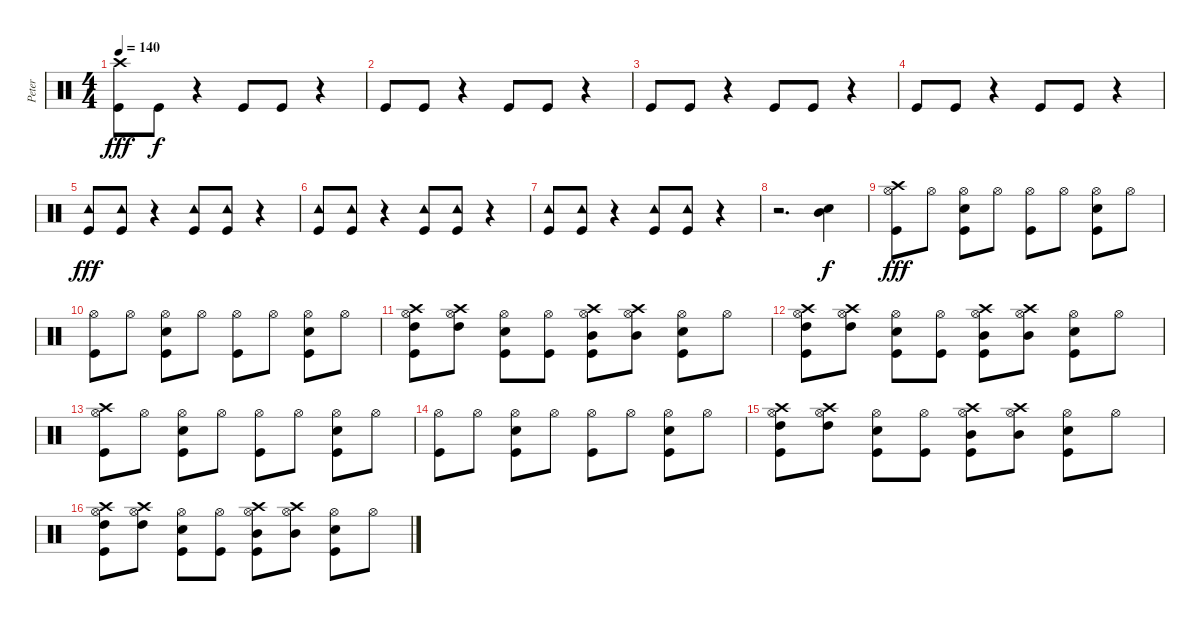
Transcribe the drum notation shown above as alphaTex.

\track ("Peter" "Peter") {instrument percussion}
\staff {score}
\articulation defaults
\ts (4 4)
\tempo 140
\clef neutral
\ks c
("Kick (hit)" "Crash high (hit)").8{dy fff} "Kick (hit)".8{dy f} r.4 "Kick (hit)".8 "Kick (hit)".8 r.4 |
"Kick (hit)".8 "Kick (hit)".8 r.4 "Kick (hit)".8 "Kick (hit)".8 r.4 |
"Kick (hit)".8 "Kick (hit)".8 r.4 "Kick (hit)".8 "Kick (hit)".8 r.4 |
"Kick (hit)".8 "Kick (hit)".8 r.4 "Kick (hit)".8 "Kick (hit)".8 r.4 |
("Tambourine (hit)" "Kick (hit)").8{dy fff} ("Tambourine (hit)" "Kick (hit)").8 r.4 ("Tambourine (hit)" "Kick (hit)").8 ("Tambourine (hit)" "Kick (hit)").8 r.4 |
("Tambourine (hit)" "Kick (hit)").8 ("Tambourine (hit)" "Kick (hit)").8 r.4 ("Tambourine (hit)" "Kick (hit)").8 ("Tambourine (hit)" "Kick (hit)").8 r.4 |
("Tambourine (hit)" "Kick (hit)").8 ("Tambourine (hit)" "Kick (hit)").8 r.4 ("Tambourine (hit)" "Kick (hit)").8 ("Tambourine (hit)" "Kick (hit)").8 r.4 |
r.2{d} ("Mid Tom (hit)" "Electric Snare (hit)").4{dy f} |
("Hi-Hat (open)" "Kick (hit)" "Crash high (hit)").8{dy fff} "Hi-Hat (open)".8 ("Hi-Hat (open)" "Kick (hit)" "Snare (hit) 2").8 "Hi-Hat (open)".8 ("Kick (hit)" "Hi-Hat (open)").8 "Hi-Hat (open)".8 ("Hi-Hat (open)" "Snare (hit) 2" "Kick (hit)").8 "Hi-Hat (open)".8 |
("Hi-Hat (open)" "Kick (hit)").8 "Hi-Hat (open)".8 ("Hi-Hat (open)" "Kick (hit)" "Snare (hit) 2").8 "Hi-Hat (open)".8 ("Kick (hit)" "Hi-Hat (open)").8 "Hi-Hat (open)".8 ("Hi-Hat (open)" "Snare (hit) 2" "Kick (hit)").8 "Hi-Hat (open)".8 |
("Crash high (hit)" "High Tom (hit)" "Hi-Hat (open)" "Kick (hit)").8 ("Crash high (hit)" "Hi-Hat (open)" "High Tom (hit)").8 ("Hi-Hat (open)" "Kick (hit)" "Snare (hit) 2").8 ("Kick (hit)" "Hi-Hat (open)").8 ("Mid Tom (hit)" "Crash high (hit)" "Kick (hit)" "Hi-Hat (open)").8 ("Mid Tom (hit)" "Crash high (hit)" "Hi-Hat (open)").8 ("Hi-Hat (open)" "Snare (hit) 2" "Kick (hit)").8 "Hi-Hat (open)".8 |
("Crash high (hit)" "High Tom (hit)" "Hi-Hat (open)" "Kick (hit)").8 ("Crash high (hit)" "Hi-Hat (open)" "High Tom (hit)").8 ("Hi-Hat (open)" "Kick (hit)" "Snare (hit) 2").8 ("Kick (hit)" "Hi-Hat (open)").8 ("Mid Tom (hit)" "Crash high (hit)" "Kick (hit)" "Hi-Hat (open)").8 ("Mid Tom (hit)" "Crash high (hit)" "Hi-Hat (open)").8 ("Hi-Hat (open)" "Snare (hit) 2" "Kick (hit)").8 "Hi-Hat (open)".8 |
("Hi-Hat (open)" "Kick (hit)" "Crash high (hit)").8 "Hi-Hat (open)".8 ("Hi-Hat (open)" "Kick (hit)" "Snare (hit) 2").8 "Hi-Hat (open)".8 ("Kick (hit)" "Hi-Hat (open)").8 "Hi-Hat (open)".8 ("Hi-Hat (open)" "Snare (hit) 2" "Kick (hit)").8 "Hi-Hat (open)".8 |
("Hi-Hat (open)" "Kick (hit)").8 "Hi-Hat (open)".8 ("Hi-Hat (open)" "Kick (hit)" "Snare (hit) 2").8 "Hi-Hat (open)".8 ("Kick (hit)" "Hi-Hat (open)").8 "Hi-Hat (open)".8 ("Hi-Hat (open)" "Snare (hit) 2" "Kick (hit)").8 "Hi-Hat (open)".8 |
("Crash high (hit)" "High Tom (hit)" "Hi-Hat (open)" "Kick (hit)").8 ("Crash high (hit)" "Hi-Hat (open)" "High Tom (hit)").8 ("Hi-Hat (open)" "Kick (hit)" "Snare (hit) 2").8 ("Kick (hit)" "Hi-Hat (open)").8 ("Mid Tom (hit)" "Crash high (hit)" "Kick (hit)" "Hi-Hat (open)").8 ("Mid Tom (hit)" "Crash high (hit)" "Hi-Hat (open)").8 ("Hi-Hat (open)" "Snare (hit) 2" "Kick (hit)").8 "Hi-Hat (open)".8 |
("Crash high (hit)" "High Tom (hit)" "Hi-Hat (open)" "Kick (hit)").8 ("Crash high (hit)" "Hi-Hat (open)" "High Tom (hit)").8 ("Hi-Hat (open)" "Kick (hit)" "Snare (hit) 2").8 ("Kick (hit)" "Hi-Hat (open)").8 ("Mid Tom (hit)" "Crash high (hit)" "Kick (hit)" "Hi-Hat (open)").8 ("Mid Tom (hit)" "Crash high (hit)" "Hi-Hat (open)").8 ("Hi-Hat (open)" "Snare (hit) 2" "Kick (hit)").8 "Hi-Hat (open)".8
